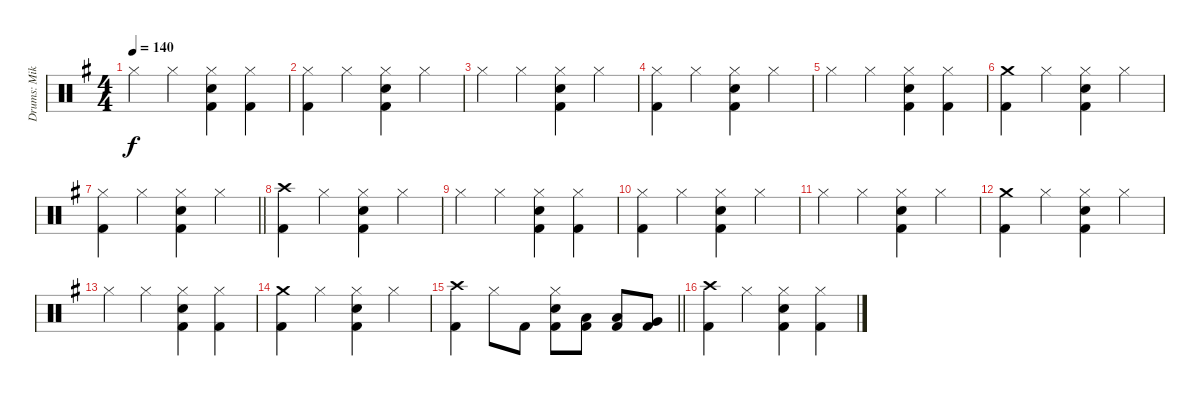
\track ("Drums: Mike Terrana" "Drums: Mik") {instrument percussion}
\staff {score}
\articulation defaults
\ts (4 4)
\tempo 140
\clef neutral
\ks eminor "Hi-Hat (closed)".4{dy f} "Hi-Hat (closed)".4
("Hi-Hat (closed)" "Electric Snare (hit)" "Kick (hit) 2").4 ("Hi-Hat (closed)" "Kick (hit) 2").4 |
("Hi-Hat (closed)" "Kick (hit) 2").4 "Hi-Hat (closed)".4 ("Hi-Hat (closed)" "Electric Snare (hit)" "Kick (hit) 2").4 "Hi-Hat (closed)".4 |
"Hi-Hat (closed)".4 "Hi-Hat (closed)".4 ("Hi-Hat (closed)" "Electric Snare (hit)" "Kick (hit) 2").4 "Hi-Hat (closed)".4 |
("Hi-Hat (closed)" "Kick (hit) 2").4 "Hi-Hat (closed)".4 ("Hi-Hat (closed)" "Electric Snare (hit)" "Kick (hit) 2").4 "Hi-Hat (closed)".4 |
"Hi-Hat (closed)".4 "Hi-Hat (closed)".4 ("Hi-Hat (closed)" "Electric Snare (hit)" "Kick (hit) 2").4 ("Hi-Hat (closed)" "Kick (hit) 2").4 |
("Crash medium (hit)" "Kick (hit) 2").4 "Hi-Hat (closed)".4 ("Hi-Hat (closed)" "Electric Snare (hit)" "Kick (hit) 2").4 "Hi-Hat (closed)".4 |
\barLineRight lightlight
("Hi-Hat (closed)" "Kick (hit) 2").4 "Hi-Hat (closed)".4 ("Hi-Hat (closed)" "Electric Snare (hit)" "Kick (hit) 2").4 "Hi-Hat (closed)".4 |
("Crash high (hit)" "Kick (hit) 2").4 "Hi-Hat (closed)".4 ("Hi-Hat (closed)" "Electric Snare (hit)" "Kick (hit) 2").4 "Hi-Hat (closed)".4 |
"Hi-Hat (closed)".4 "Hi-Hat (closed)".4 ("Hi-Hat (closed)" "Electric Snare (hit)" "Kick (hit) 2").4 ("Hi-Hat (closed)" "Kick (hit) 2").4 |
("Hi-Hat (closed)" "Kick (hit) 2").4 "Hi-Hat (closed)".4 ("Hi-Hat (closed)" "Electric Snare (hit)" "Kick (hit) 2").4 "Hi-Hat (closed)".4 |
"Hi-Hat (closed)".4 "Hi-Hat (closed)".4 ("Hi-Hat (closed)" "Electric Snare (hit)" "Kick (hit) 2").4 "Hi-Hat (closed)".4 |
("Crash medium (hit)" "Kick (hit) 2").4 "Hi-Hat (closed)".4 ("Hi-Hat (closed)" "Electric Snare (hit)" "Kick (hit) 2").4 "Hi-Hat (closed)".4 |
"Hi-Hat (closed)".4 "Hi-Hat (closed)".4 ("Hi-Hat (closed)" "Electric Snare (hit)" "Kick (hit) 2").4 ("Hi-Hat (closed)" "Kick (hit) 2").4 |
("Crash medium (hit)" "Kick (hit) 2").4 "Hi-Hat (closed)".4 ("Hi-Hat (closed)" "Electric Snare (hit)" "Kick (hit) 2").4 "Hi-Hat (closed)".4 |
\barLineRight lightlight
("Crash high (hit)" "Kick (hit) 2").4 "Hi-Hat (closed)".8 "Kick (hit) 2".8 ("Hi-Hat (closed)" "Electric Snare (hit)" "Kick (hit) 2").8 ("Low Tom (hit)" "Kick (hit) 2").8 ("Low Tom (hit)" "Kick (hit) 2").8 ("Very Low Tom (hit)" "Kick (hit) 2").8 |
("Crash high (hit)" "Kick (hit) 2").4 "Hi-Hat (closed)".4 ("Hi-Hat (closed)" "Electric Snare (hit)" "Kick (hit) 2").4 ("Hi-Hat (closed)" "Kick (hit) 2").4
